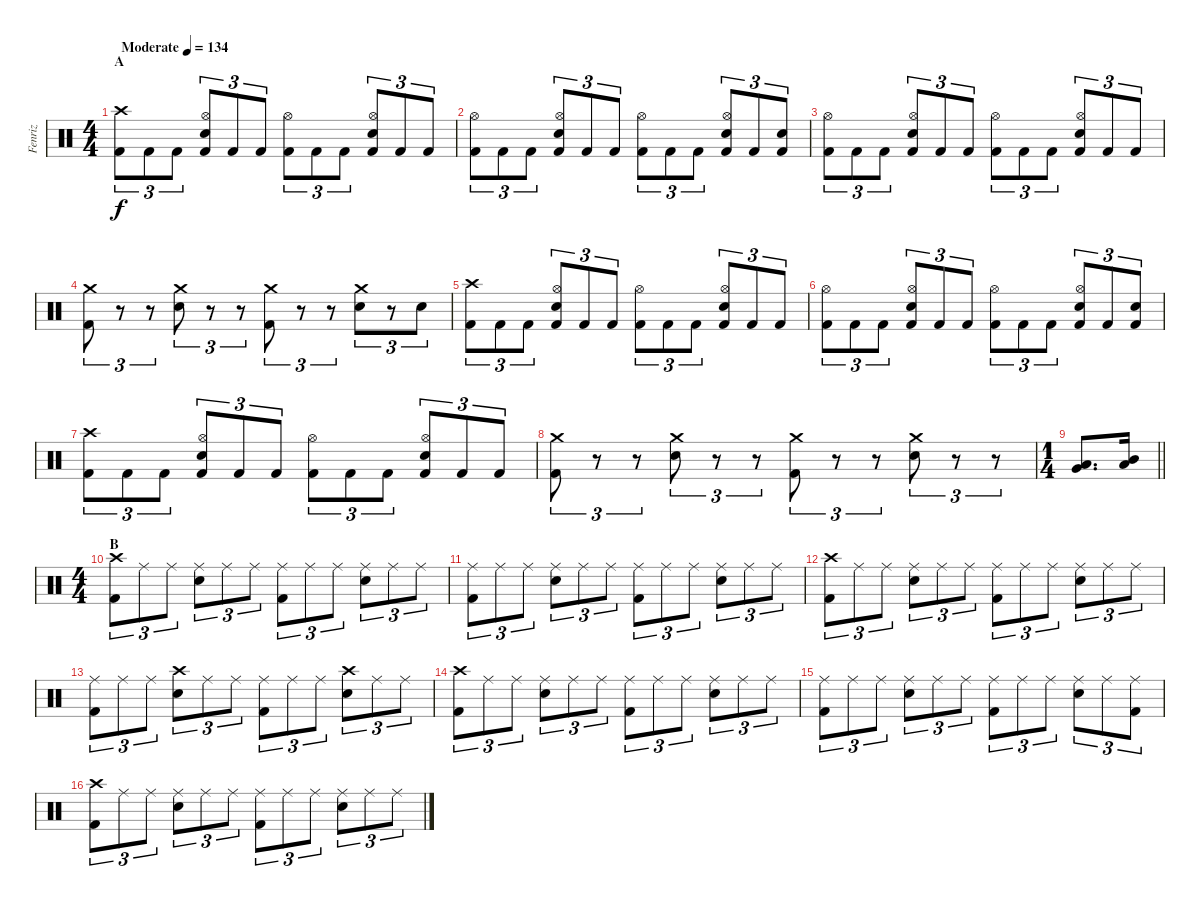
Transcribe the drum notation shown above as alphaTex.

\track ("Fenriz" "Fenriz") {instrument percussion}
\staff {score}
\articulation defaults
\ts (4 4)
\section ("" "A")
\tempo (134 "Moderate")
\clef neutral
\ks c
("Crash high (hit)" "Kick (hit) 2").8{tu (3 2) dy f} "Kick (hit) 2".8{tu (3 2)} "Kick (hit) 2".8{tu (3 2)} ("Hi-Hat (open)" "Snare (hit) 2" "Kick (hit) 2").8{tu (3 2)} "Kick (hit) 2".8{tu (3 2)} "Kick (hit) 2".8{tu (3 2)} ("Hi-Hat (open)" "Kick (hit) 2").8{tu (3 2)} "Kick (hit) 2".8{tu (3 2)} "Kick (hit) 2".8{tu (3 2)} ("Hi-Hat (open)" "Snare (hit) 2" "Kick (hit) 2").8{tu (3 2)} "Kick (hit) 2".8{tu (3 2)} "Kick (hit) 2".8{tu (3 2)} |
("Hi-Hat (open)" "Kick (hit) 2").8{tu (3 2)} "Kick (hit) 2".8{tu (3 2)} "Kick (hit) 2".8{tu (3 2)} ("Hi-Hat (open)" "Snare (hit) 2" "Kick (hit) 2").8{tu (3 2)} "Kick (hit) 2".8{tu (3 2)} "Kick (hit) 2".8{tu (3 2)} ("Hi-Hat (open)" "Kick (hit) 2").8{tu (3 2)} "Kick (hit) 2".8{tu (3 2)} "Kick (hit) 2".8{tu (3 2)} ("Hi-Hat (open)" "Snare (hit) 2" "Kick (hit) 2").8{tu (3 2)} "Kick (hit) 2".8{tu (3 2)} ("Snare (hit) 2" "Kick (hit) 2").8{tu (3 2)} |
("Hi-Hat (open)" "Kick (hit) 2").8{tu (3 2)} "Kick (hit) 2".8{tu (3 2)} "Kick (hit) 2".8{tu (3 2)} ("Hi-Hat (open)" "Snare (hit) 2" "Kick (hit) 2").8{tu (3 2)} "Kick (hit) 2".8{tu (3 2)} "Kick (hit) 2".8{tu (3 2)} ("Hi-Hat (open)" "Kick (hit) 2").8{tu (3 2)} "Kick (hit) 2".8{tu (3 2)} "Kick (hit) 2".8{tu (3 2)} ("Hi-Hat (open)" "Snare (hit) 2" "Kick (hit) 2").8{tu (3 2)} "Kick (hit) 2".8{tu (3 2)} "Kick (hit) 2".8{tu (3 2)} |
("Crash medium (hit)" "Kick (hit) 2").8{tu (3 2)} r.8{tu (3 2)} r.8{tu (3 2)} ("Crash medium (hit)" "Snare (hit) 2").8{tu (3 2)} r.8{tu (3 2)} r.8{tu (3 2)} ("Crash medium (hit)" "Kick (hit) 2").8{tu (3 2)} r.8{tu (3 2)} r.8{tu (3 2)} ("Crash medium (hit)" "Snare (hit) 2").8{tu (3 2)} r.8{tu (3 2)} "Snare (hit) 2".8{tu (3 2)} |
("Crash high (hit)" "Kick (hit) 2").8{tu (3 2)} "Kick (hit) 2".8{tu (3 2)} "Kick (hit) 2".8{tu (3 2)} ("Hi-Hat (open)" "Snare (hit) 2" "Kick (hit) 2").8{tu (3 2)} "Kick (hit) 2".8{tu (3 2)} "Kick (hit) 2".8{tu (3 2)} ("Hi-Hat (open)" "Kick (hit) 2").8{tu (3 2)} "Kick (hit) 2".8{tu (3 2)} "Kick (hit) 2".8{tu (3 2)} ("Hi-Hat (open)" "Snare (hit) 2" "Kick (hit) 2").8{tu (3 2)} "Kick (hit) 2".8{tu (3 2)} "Kick (hit) 2".8{tu (3 2)} |
("Hi-Hat (open)" "Kick (hit) 2").8{tu (3 2)} "Kick (hit) 2".8{tu (3 2)} "Kick (hit) 2".8{tu (3 2)} ("Hi-Hat (open)" "Snare (hit) 2" "Kick (hit) 2").8{tu (3 2)} "Kick (hit) 2".8{tu (3 2)} "Kick (hit) 2".8{tu (3 2)} ("Hi-Hat (open)" "Kick (hit) 2").8{tu (3 2)} "Kick (hit) 2".8{tu (3 2)} "Kick (hit) 2".8{tu (3 2)} ("Hi-Hat (open)" "Snare (hit) 2" "Kick (hit) 2").8{tu (3 2)} "Kick (hit) 2".8{tu (3 2)} ("Snare (hit) 2" "Kick (hit) 2").8{tu (3 2)} |
("Crash high (hit)" "Kick (hit) 2").8{tu (3 2)} "Kick (hit) 2".8{tu (3 2)} "Kick (hit) 2".8{tu (3 2)} ("Hi-Hat (open)" "Snare (hit) 2" "Kick (hit) 2").8{tu (3 2)} "Kick (hit) 2".8{tu (3 2)} "Kick (hit) 2".8{tu (3 2)} ("Hi-Hat (open)" "Kick (hit) 2").8{tu (3 2)} "Kick (hit) 2".8{tu (3 2)} "Kick (hit) 2".8{tu (3 2)} ("Hi-Hat (open)" "Snare (hit) 2" "Kick (hit) 2").8{tu (3 2)} "Kick (hit) 2".8{tu (3 2)} "Kick (hit) 2".8{tu (3 2)} |
("Crash medium (hit)" "Kick (hit) 2").8{tu (3 2)} r.8{tu (3 2)} r.8{tu (3 2)} ("Crash medium (hit)" "Snare (hit) 2").8{tu (3 2)} r.8{tu (3 2)} r.8{tu (3 2)} ("Crash medium (hit)" "Kick (hit) 2").8{tu (3 2)} r.8{tu (3 2)} r.8{tu (3 2)} ("Crash medium (hit)" "Snare (hit) 2").8{tu (3 2)} r.8{tu (3 2)} r.8{tu (3 2)} |
\ts (1 4)
\barLineRight lightlight
("Low Tom (hit)" "Very Low Tom (hit)").8{d} ("Mid Tom (hit)" "Low Tom (hit)").16 |
\ts (4 4)
\section ("" "B")
("Crash high (hit)" "Kick (hit) 2").8{tu (3 2)} "Ride (middle)".8{tu (3 2)} "Ride (middle)".8{tu (3 2)} ("Ride (middle)" "Snare (hit) 2").8{tu (3 2)} "Ride (middle)".8{tu (3 2)} "Ride (middle)".8{tu (3 2)} ("Ride (middle)" "Kick (hit) 2").8{tu (3 2)} "Ride (middle)".8{tu (3 2)} "Ride (middle)".8{tu (3 2)} ("Ride (middle)" "Snare (hit) 2").8{tu (3 2)} "Ride (middle)".8{tu (3 2)} "Ride (middle)".8{tu (3 2)} |
("Ride (middle)" "Kick (hit) 2").8{tu (3 2)} "Ride (middle)".8{tu (3 2)} "Ride (middle)".8{tu (3 2)} ("Ride (middle)" "Snare (hit) 2").8{tu (3 2)} "Ride (middle)".8{tu (3 2)} "Ride (middle)".8{tu (3 2)} ("Ride (middle)" "Kick (hit) 2").8{tu (3 2)} "Ride (middle)".8{tu (3 2)} "Ride (middle)".8{tu (3 2)} ("Ride (middle)" "Snare (hit) 2").8{tu (3 2)} "Ride (middle)".8{tu (3 2)} "Ride (middle)".8{tu (3 2)} |
("Crash high (hit)" "Kick (hit) 2").8{tu (3 2)} "Ride (middle)".8{tu (3 2)} "Ride (middle)".8{tu (3 2)} ("Ride (middle)" "Snare (hit) 2").8{tu (3 2)} "Ride (middle)".8{tu (3 2)} "Ride (middle)".8{tu (3 2)} ("Ride (middle)" "Kick (hit) 2").8{tu (3 2)} "Ride (middle)".8{tu (3 2)} "Ride (middle)".8{tu (3 2)} ("Ride (middle)" "Snare (hit) 2").8{tu (3 2)} "Ride (middle)".8{tu (3 2)} "Ride (middle)".8{tu (3 2)} |
("Ride (middle)" "Kick (hit) 2").8{tu (3 2)} "Ride (middle)".8{tu (3 2)} "Ride (middle)".8{tu (3 2)} ("Crash high (hit)" "Snare (hit) 2").8{tu (3 2)} "Ride (middle)".8{tu (3 2)} "Ride (middle)".8{tu (3 2)} ("Ride (middle)" "Kick (hit) 2").8{tu (3 2)} "Ride (middle)".8{tu (3 2)} "Ride (middle)".8{tu (3 2)} ("Crash high (hit)" "Snare (hit) 2").8{tu (3 2)} "Ride (middle)".8{tu (3 2)} "Ride (middle)".8{tu (3 2)} |
("Crash high (hit)" "Kick (hit) 2").8{tu (3 2)} "Ride (middle)".8{tu (3 2)} "Ride (middle)".8{tu (3 2)} ("Ride (middle)" "Snare (hit) 2").8{tu (3 2)} "Ride (middle)".8{tu (3 2)} "Ride (middle)".8{tu (3 2)} ("Ride (middle)" "Kick (hit) 2").8{tu (3 2)} "Ride (middle)".8{tu (3 2)} "Ride (middle)".8{tu (3 2)} ("Ride (middle)" "Snare (hit) 2").8{tu (3 2)} "Ride (middle)".8{tu (3 2)} "Ride (middle)".8{tu (3 2)} |
("Ride (middle)" "Kick (hit) 2").8{tu (3 2)} "Ride (middle)".8{tu (3 2)} "Ride (middle)".8{tu (3 2)} ("Ride (middle)" "Snare (hit) 2").8{tu (3 2)} "Ride (middle)".8{tu (3 2)} "Ride (middle)".8{tu (3 2)} ("Ride (middle)" "Kick (hit) 2").8{tu (3 2)} "Ride (middle)".8{tu (3 2)} "Ride (middle)".8{tu (3 2)} ("Ride (middle)" "Snare (hit) 2").8{tu (3 2)} "Ride (middle)".8{tu (3 2)} ("Ride (middle)" "Kick (hit) 2").8{tu (3 2)} |
("Crash high (hit)" "Kick (hit) 2").8{tu (3 2)} "Ride (middle)".8{tu (3 2)} "Ride (middle)".8{tu (3 2)} ("Ride (middle)" "Snare (hit) 2").8{tu (3 2)} "Ride (middle)".8{tu (3 2)} "Ride (middle)".8{tu (3 2)} ("Ride (middle)" "Kick (hit) 2").8{tu (3 2)} "Ride (middle)".8{tu (3 2)} "Ride (middle)".8{tu (3 2)} ("Ride (middle)" "Snare (hit) 2").8{tu (3 2)} "Ride (middle)".8{tu (3 2)} "Ride (middle)".8{tu (3 2)}
